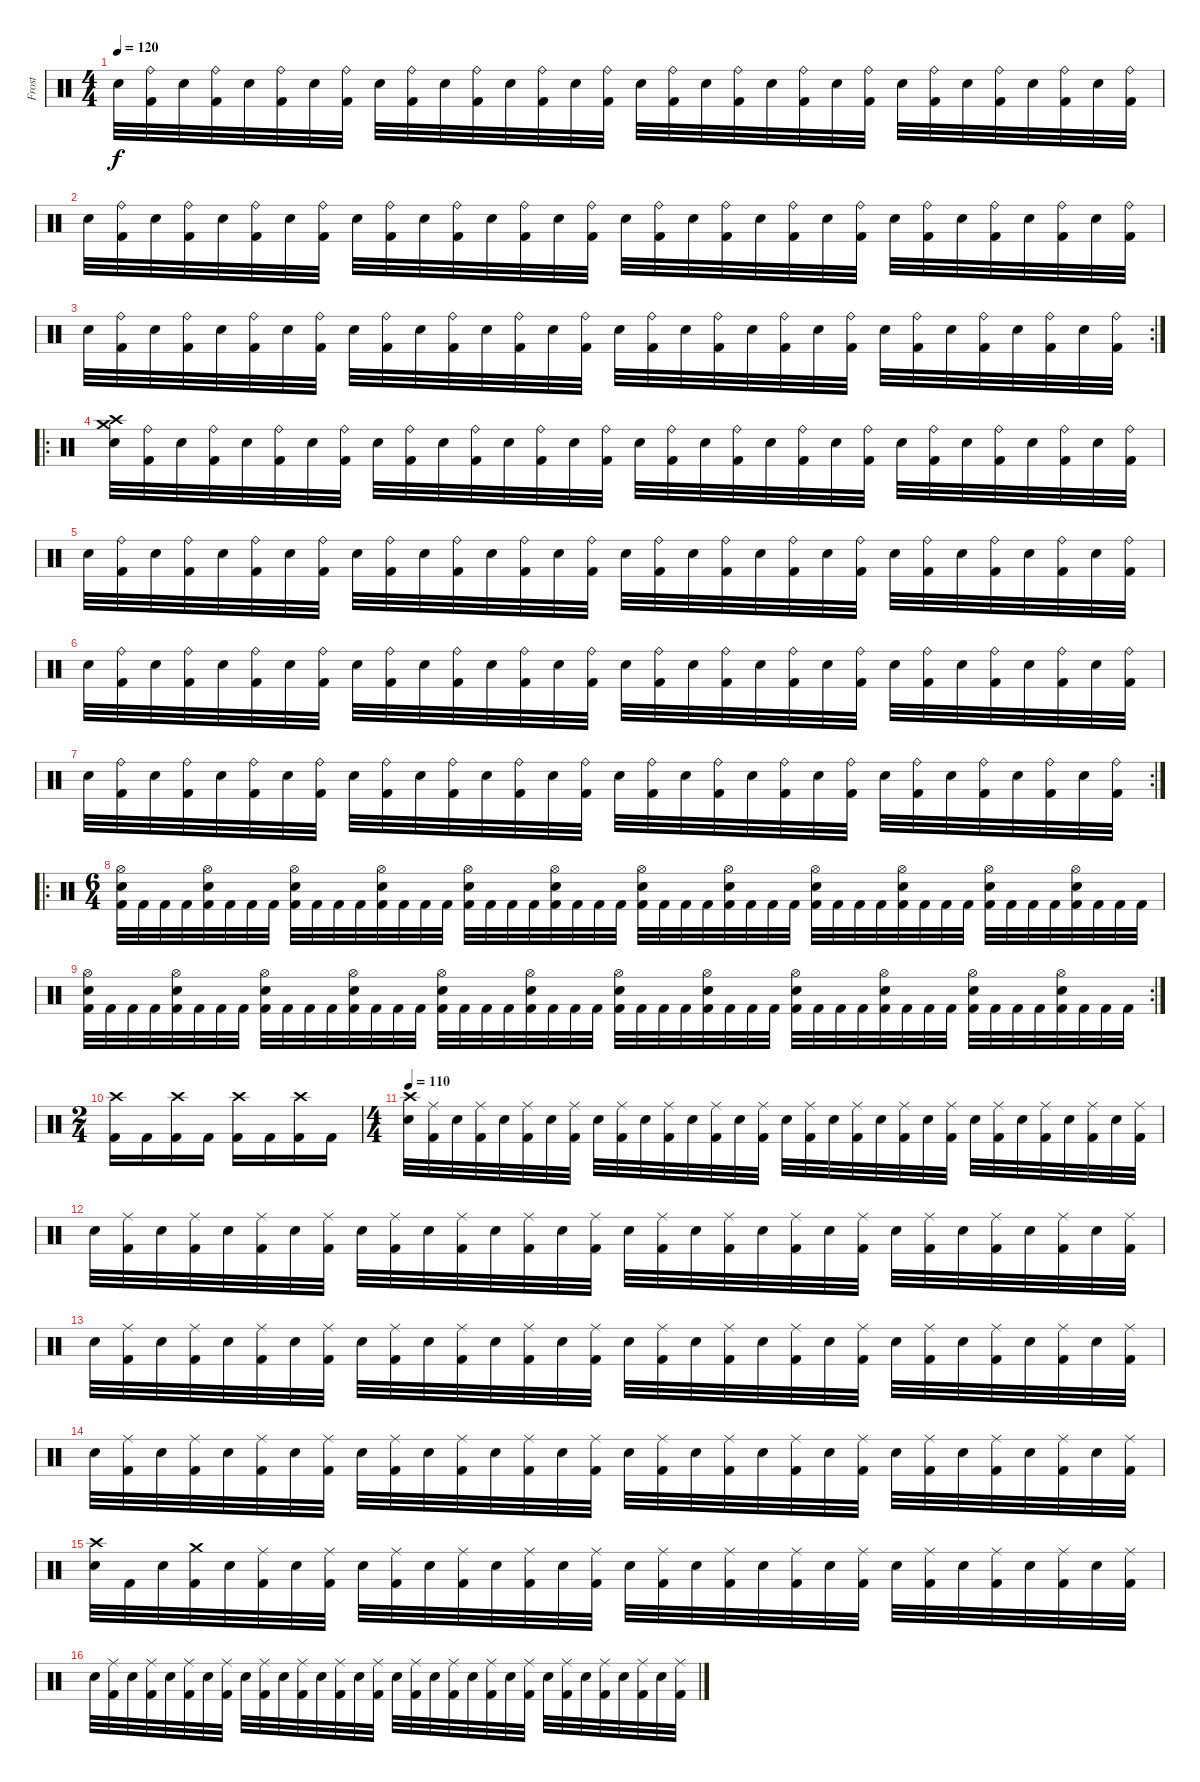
\track ("Frost" "Frost") {instrument percussion}
\staff {score}
\articulation defaults
\ts (4 4)
\tempo 120
\clef neutral
\ks c "Snare (hit) 2".32{dy f}
("Ride (bell)" "Kick (hit) 2").32 "Snare (hit) 2".32 ("Ride (bell)" "Kick (hit) 2").32 "Snare (hit) 2".32 ("Ride (bell)" "Kick (hit) 2").32 "Snare (hit) 2".32 ("Ride (bell)" "Kick (hit) 2").32 "Snare (hit) 2".32 ("Ride (bell)" "Kick (hit) 2").32 "Snare (hit) 2".32 ("Ride (bell)" "Kick (hit) 2").32 "Snare (hit) 2".32 ("Ride (bell)" "Kick (hit) 2").32 "Snare (hit) 2".32 ("Ride (bell)" "Kick (hit) 2").32 "Snare (hit) 2".32 ("Ride (bell)" "Kick (hit) 2").32 "Snare (hit) 2".32 ("Ride (bell)" "Kick (hit) 2").32 "Snare (hit) 2".32 ("Ride (bell)" "Kick (hit) 2").32 "Snare (hit) 2".32 ("Ride (bell)" "Kick (hit) 2").32 "Snare (hit) 2".32 ("Ride (bell)" "Kick (hit) 2").32 "Snare (hit) 2".32 ("Ride (bell)" "Kick (hit) 2").32 "Snare (hit) 2".32 ("Ride (bell)" "Kick (hit) 2").32 "Snare (hit) 2".32 ("Ride (bell)" "Kick (hit) 2").32 |
"Snare (hit) 2".32 ("Ride (bell)" "Kick (hit) 2").32 "Snare (hit) 2".32 ("Ride (bell)" "Kick (hit) 2").32 "Snare (hit) 2".32 ("Ride (bell)" "Kick (hit) 2").32 "Snare (hit) 2".32 ("Ride (bell)" "Kick (hit) 2").32 "Snare (hit) 2".32 ("Ride (bell)" "Kick (hit) 2").32 "Snare (hit) 2".32 ("Ride (bell)" "Kick (hit) 2").32 "Snare (hit) 2".32 ("Ride (bell)" "Kick (hit) 2").32 "Snare (hit) 2".32 ("Ride (bell)" "Kick (hit) 2").32 "Snare (hit) 2".32 ("Ride (bell)" "Kick (hit) 2").32 "Snare (hit) 2".32 ("Ride (bell)" "Kick (hit) 2").32 "Snare (hit) 2".32 ("Ride (bell)" "Kick (hit) 2").32 "Snare (hit) 2".32 ("Ride (bell)" "Kick (hit) 2").32 "Snare (hit) 2".32 ("Ride (bell)" "Kick (hit) 2").32 "Snare (hit) 2".32 ("Ride (bell)" "Kick (hit) 2").32 "Snare (hit) 2".32 ("Ride (bell)" "Kick (hit) 2").32 "Snare (hit) 2".32 ("Ride (bell)" "Kick (hit) 2").32 |
\rc 2 "Snare (hit) 2".32
("Ride (bell)" "Kick (hit) 2").32 "Snare (hit) 2".32 ("Ride (bell)" "Kick (hit) 2").32 "Snare (hit) 2".32 ("Ride (bell)" "Kick (hit) 2").32 "Snare (hit) 2".32 ("Ride (bell)" "Kick (hit) 2").32 "Snare (hit) 2".32 ("Ride (bell)" "Kick (hit) 2").32 "Snare (hit) 2".32 ("Ride (bell)" "Kick (hit) 2").32 "Snare (hit) 2".32 ("Ride (bell)" "Kick (hit) 2").32 "Snare (hit) 2".32 ("Ride (bell)" "Kick (hit) 2").32 "Snare (hit) 2".32 ("Ride (bell)" "Kick (hit) 2").32 "Snare (hit) 2".32 ("Ride (bell)" "Kick (hit) 2").32 "Snare (hit) 2".32 ("Ride (bell)" "Kick (hit) 2").32 "Snare (hit) 2".32 ("Ride (bell)" "Kick (hit) 2").32 "Snare (hit) 2".32 ("Ride (bell)" "Kick (hit) 2").32 "Snare (hit) 2".32 ("Ride (bell)" "Kick (hit) 2").32 "Snare (hit) 2".32 ("Ride (bell)" "Kick (hit) 2").32 "Snare (hit) 2".32 ("Ride (bell)" "Kick (hit) 2").32 |
\ro
("Crash high (hit)" "Crash medium (hit)" "Snare (hit) 2").32 ("Ride (bell)" "Kick (hit) 2").32 "Snare (hit) 2".32 ("Ride (bell)" "Kick (hit) 2").32 "Snare (hit) 2".32 ("Ride (bell)" "Kick (hit) 2").32 "Snare (hit) 2".32 ("Ride (bell)" "Kick (hit) 2").32 "Snare (hit) 2".32 ("Ride (bell)" "Kick (hit) 2").32 "Snare (hit) 2".32 ("Ride (bell)" "Kick (hit) 2").32 "Snare (hit) 2".32 ("Ride (bell)" "Kick (hit) 2").32 "Snare (hit) 2".32 ("Ride (bell)" "Kick (hit) 2").32 "Snare (hit) 2".32 ("Ride (bell)" "Kick (hit) 2").32 "Snare (hit) 2".32 ("Ride (bell)" "Kick (hit) 2").32 "Snare (hit) 2".32 ("Ride (bell)" "Kick (hit) 2").32 "Snare (hit) 2".32 ("Ride (bell)" "Kick (hit) 2").32 "Snare (hit) 2".32 ("Ride (bell)" "Kick (hit) 2").32 "Snare (hit) 2".32 ("Ride (bell)" "Kick (hit) 2").32 "Snare (hit) 2".32 ("Ride (bell)" "Kick (hit) 2").32 "Snare (hit) 2".32 ("Ride (bell)" "Kick (hit) 2").32 |
"Snare (hit) 2".32 ("Ride (bell)" "Kick (hit) 2").32 "Snare (hit) 2".32 ("Ride (bell)" "Kick (hit) 2").32 "Snare (hit) 2".32 ("Ride (bell)" "Kick (hit) 2").32 "Snare (hit) 2".32 ("Ride (bell)" "Kick (hit) 2").32 "Snare (hit) 2".32 ("Ride (bell)" "Kick (hit) 2").32 "Snare (hit) 2".32 ("Ride (bell)" "Kick (hit) 2").32 "Snare (hit) 2".32 ("Ride (bell)" "Kick (hit) 2").32 "Snare (hit) 2".32 ("Ride (bell)" "Kick (hit) 2").32 "Snare (hit) 2".32 ("Ride (bell)" "Kick (hit) 2").32 "Snare (hit) 2".32 ("Ride (bell)" "Kick (hit) 2").32 "Snare (hit) 2".32 ("Ride (bell)" "Kick (hit) 2").32 "Snare (hit) 2".32 ("Ride (bell)" "Kick (hit) 2").32 "Snare (hit) 2".32 ("Ride (bell)" "Kick (hit) 2").32 "Snare (hit) 2".32 ("Ride (bell)" "Kick (hit) 2").32 "Snare (hit) 2".32 ("Ride (bell)" "Kick (hit) 2").32 "Snare (hit) 2".32 ("Ride (bell)" "Kick (hit) 2").32 |
"Snare (hit) 2".32 ("Ride (bell)" "Kick (hit) 2").32 "Snare (hit) 2".32 ("Ride (bell)" "Kick (hit) 2").32 "Snare (hit) 2".32 ("Ride (bell)" "Kick (hit) 2").32 "Snare (hit) 2".32 ("Ride (bell)" "Kick (hit) 2").32 "Snare (hit) 2".32 ("Ride (bell)" "Kick (hit) 2").32 "Snare (hit) 2".32 ("Ride (bell)" "Kick (hit) 2").32 "Snare (hit) 2".32 ("Ride (bell)" "Kick (hit) 2").32 "Snare (hit) 2".32 ("Ride (bell)" "Kick (hit) 2").32 "Snare (hit) 2".32 ("Ride (bell)" "Kick (hit) 2").32 "Snare (hit) 2".32 ("Ride (bell)" "Kick (hit) 2").32 "Snare (hit) 2".32 ("Ride (bell)" "Kick (hit) 2").32 "Snare (hit) 2".32 ("Ride (bell)" "Kick (hit) 2").32 "Snare (hit) 2".32 ("Ride (bell)" "Kick (hit) 2").32 "Snare (hit) 2".32 ("Ride (bell)" "Kick (hit) 2").32 "Snare (hit) 2".32 ("Ride (bell)" "Kick (hit) 2").32 "Snare (hit) 2".32 ("Ride (bell)" "Kick (hit) 2").32 |
\rc 2 "Snare (hit) 2".32
("Ride (bell)" "Kick (hit) 2").32 "Snare (hit) 2".32 ("Ride (bell)" "Kick (hit) 2").32 "Snare (hit) 2".32 ("Ride (bell)" "Kick (hit) 2").32 "Snare (hit) 2".32 ("Ride (bell)" "Kick (hit) 2").32 "Snare (hit) 2".32 ("Ride (bell)" "Kick (hit) 2").32 "Snare (hit) 2".32 ("Ride (bell)" "Kick (hit) 2").32 "Snare (hit) 2".32 ("Ride (bell)" "Kick (hit) 2").32 "Snare (hit) 2".32 ("Ride (bell)" "Kick (hit) 2").32 "Snare (hit) 2".32 ("Ride (bell)" "Kick (hit) 2").32 "Snare (hit) 2".32 ("Ride (bell)" "Kick (hit) 2").32 "Snare (hit) 2".32 ("Ride (bell)" "Kick (hit) 2").32 "Snare (hit) 2".32 ("Ride (bell)" "Kick (hit) 2").32 "Snare (hit) 2".32 ("Ride (bell)" "Kick (hit) 2").32 "Snare (hit) 2".32 ("Ride (bell)" "Kick (hit) 2").32 "Snare (hit) 2".32 ("Ride (bell)" "Kick (hit) 2").32 "Snare (hit) 2".32 ("Ride (bell)" "Kick (hit) 2").32 |
\ro
\ts (6 4)
("Hi-Hat (open)" "Snare (hit) 2" "Kick (hit) 2").32 "Kick (hit) 2".32 "Kick (hit) 2".32 "Kick (hit) 2".32 ("Hi-Hat (open)" "Snare (hit) 2" "Kick (hit) 2").32 "Kick (hit) 2".32 "Kick (hit) 2".32 "Kick (hit) 2".32 ("Hi-Hat (open)" "Snare (hit) 2" "Kick (hit) 2").32 "Kick (hit) 2".32 "Kick (hit) 2".32 "Kick (hit) 2".32 ("Hi-Hat (open)" "Snare (hit) 2" "Kick (hit) 2").32 "Kick (hit) 2".32 "Kick (hit) 2".32 "Kick (hit) 2".32 ("Hi-Hat (open)" "Snare (hit) 2" "Kick (hit) 2").32 "Kick (hit) 2".32 "Kick (hit) 2".32 "Kick (hit) 2".32 ("Hi-Hat (open)" "Snare (hit) 2" "Kick (hit) 2").32 "Kick (hit) 2".32 "Kick (hit) 2".32 "Kick (hit) 2".32 ("Hi-Hat (open)" "Snare (hit) 2" "Kick (hit) 2").32 "Kick (hit) 2".32 "Kick (hit) 2".32 "Kick (hit) 2".32 ("Hi-Hat (open)" "Snare (hit) 2" "Kick (hit) 2").32 "Kick (hit) 2".32 "Kick (hit) 2".32 "Kick (hit) 2".32 ("Hi-Hat (open)" "Snare (hit) 2" "Kick (hit) 2").32 "Kick (hit) 2".32 "Kick (hit) 2".32 "Kick (hit) 2".32 ("Hi-Hat (open)" "Snare (hit) 2" "Kick (hit) 2").32 "Kick (hit) 2".32 "Kick (hit) 2".32 "Kick (hit) 2".32 ("Hi-Hat (open)" "Snare (hit) 2" "Kick (hit) 2").32 "Kick (hit) 2".32 "Kick (hit) 2".32 "Kick (hit) 2".32 ("Hi-Hat (open)" "Snare (hit) 2" "Kick (hit) 2").32 "Kick (hit) 2".32 "Kick (hit) 2".32 "Kick (hit) 2".32 |
\rc 2
("Hi-Hat (open)" "Snare (hit) 2" "Kick (hit) 2").32 "Kick (hit) 2".32 "Kick (hit) 2".32 "Kick (hit) 2".32 ("Hi-Hat (open)" "Snare (hit) 2" "Kick (hit) 2").32 "Kick (hit) 2".32 "Kick (hit) 2".32 "Kick (hit) 2".32 ("Hi-Hat (open)" "Snare (hit) 2" "Kick (hit) 2").32 "Kick (hit) 2".32 "Kick (hit) 2".32 "Kick (hit) 2".32 ("Hi-Hat (open)" "Snare (hit) 2" "Kick (hit) 2").32 "Kick (hit) 2".32 "Kick (hit) 2".32 "Kick (hit) 2".32 ("Hi-Hat (open)" "Snare (hit) 2" "Kick (hit) 2").32 "Kick (hit) 2".32 "Kick (hit) 2".32 "Kick (hit) 2".32 ("Hi-Hat (open)" "Snare (hit) 2" "Kick (hit) 2").32 "Kick (hit) 2".32 "Kick (hit) 2".32 "Kick (hit) 2".32 ("Hi-Hat (open)" "Snare (hit) 2" "Kick (hit) 2").32 "Kick (hit) 2".32 "Kick (hit) 2".32 "Kick (hit) 2".32 ("Hi-Hat (open)" "Snare (hit) 2" "Kick (hit) 2").32 "Kick (hit) 2".32 "Kick (hit) 2".32 "Kick (hit) 2".32 ("Hi-Hat (open)" "Snare (hit) 2" "Kick (hit) 2").32 "Kick (hit) 2".32 "Kick (hit) 2".32 "Kick (hit) 2".32 ("Hi-Hat (open)" "Snare (hit) 2" "Kick (hit) 2").32 "Kick (hit) 2".32 "Kick (hit) 2".32 "Kick (hit) 2".32 ("Hi-Hat (open)" "Snare (hit) 2" "Kick (hit) 2").32 "Kick (hit) 2".32 "Kick (hit) 2".32 "Kick (hit) 2".32 ("Hi-Hat (open)" "Snare (hit) 2" "Kick (hit) 2").32 "Kick (hit) 2".32 "Kick (hit) 2".32 "Kick (hit) 2".32 |
\ts (2 4)
("Crash high (hit)" "Kick (hit) 2").16 "Kick (hit) 2".16 ("Crash high (hit)" "Kick (hit) 2").16 "Kick (hit) 2".16 ("Crash high (hit)" "Kick (hit) 2").16 "Kick (hit) 2".16 ("Crash high (hit)" "Kick (hit) 2").16 "Kick (hit) 2".16 |
\ts (4 4)
\tempo 110
("Crash high (hit)" "Snare (hit) 2").32 ("Ride (middle)" "Kick (hit) 2").32 "Snare (hit) 2".32 ("Ride (middle)" "Kick (hit) 2").32 "Snare (hit) 2".32 ("Ride (middle)" "Kick (hit) 2").32 "Snare (hit) 2".32 ("Ride (middle)" "Kick (hit) 2").32 "Snare (hit) 2".32 ("Ride (middle)" "Kick (hit) 2").32 "Snare (hit) 2".32 ("Ride (middle)" "Kick (hit) 2").32 "Snare (hit) 2".32 ("Ride (middle)" "Kick (hit) 2").32 "Snare (hit) 2".32 ("Ride (middle)" "Kick (hit) 2").32 "Snare (hit) 2".32 ("Ride (middle)" "Kick (hit) 2").32 "Snare (hit) 2".32 ("Ride (middle)" "Kick (hit) 2").32 "Snare (hit) 2".32 ("Ride (middle)" "Kick (hit) 2").32 "Snare (hit) 2".32 ("Ride (middle)" "Kick (hit) 2").32 "Snare (hit) 2".32 ("Ride (middle)" "Kick (hit) 2").32 "Snare (hit) 2".32 ("Ride (middle)" "Kick (hit) 2").32 "Snare (hit) 2".32 ("Ride (middle)" "Kick (hit) 2").32 "Snare (hit) 2".32 ("Ride (middle)" "Kick (hit) 2").32 |
"Snare (hit) 2".32 ("Ride (middle)" "Kick (hit) 2").32 "Snare (hit) 2".32 ("Ride (middle)" "Kick (hit) 2").32 "Snare (hit) 2".32 ("Ride (middle)" "Kick (hit) 2").32 "Snare (hit) 2".32 ("Ride (middle)" "Kick (hit) 2").32 "Snare (hit) 2".32 ("Ride (middle)" "Kick (hit) 2").32 "Snare (hit) 2".32 ("Ride (middle)" "Kick (hit) 2").32 "Snare (hit) 2".32 ("Ride (middle)" "Kick (hit) 2").32 "Snare (hit) 2".32 ("Ride (middle)" "Kick (hit) 2").32 "Snare (hit) 2".32 ("Ride (middle)" "Kick (hit) 2").32 "Snare (hit) 2".32 ("Ride (middle)" "Kick (hit) 2").32 "Snare (hit) 2".32 ("Ride (middle)" "Kick (hit) 2").32 "Snare (hit) 2".32 ("Ride (middle)" "Kick (hit) 2").32 "Snare (hit) 2".32 ("Ride (middle)" "Kick (hit) 2").32 "Snare (hit) 2".32 ("Ride (middle)" "Kick (hit) 2").32 "Snare (hit) 2".32 ("Ride (middle)" "Kick (hit) 2").32 "Snare (hit) 2".32 ("Ride (middle)" "Kick (hit) 2").32 |
"Snare (hit) 2".32 ("Ride (middle)" "Kick (hit) 2").32 "Snare (hit) 2".32 ("Ride (middle)" "Kick (hit) 2").32 "Snare (hit) 2".32 ("Ride (middle)" "Kick (hit) 2").32 "Snare (hit) 2".32 ("Ride (middle)" "Kick (hit) 2").32 "Snare (hit) 2".32 ("Ride (middle)" "Kick (hit) 2").32 "Snare (hit) 2".32 ("Ride (middle)" "Kick (hit) 2").32 "Snare (hit) 2".32 ("Ride (middle)" "Kick (hit) 2").32 "Snare (hit) 2".32 ("Ride (middle)" "Kick (hit) 2").32 "Snare (hit) 2".32 ("Ride (middle)" "Kick (hit) 2").32 "Snare (hit) 2".32 ("Ride (middle)" "Kick (hit) 2").32 "Snare (hit) 2".32 ("Ride (middle)" "Kick (hit) 2").32 "Snare (hit) 2".32 ("Ride (middle)" "Kick (hit) 2").32 "Snare (hit) 2".32 ("Ride (middle)" "Kick (hit) 2").32 "Snare (hit) 2".32 ("Ride (middle)" "Kick (hit) 2").32 "Snare (hit) 2".32 ("Ride (middle)" "Kick (hit) 2").32 "Snare (hit) 2".32 ("Ride (middle)" "Kick (hit) 2").32 |
"Snare (hit) 2".32 ("Ride (middle)" "Kick (hit) 2").32 "Snare (hit) 2".32 ("Ride (middle)" "Kick (hit) 2").32 "Snare (hit) 2".32 ("Ride (middle)" "Kick (hit) 2").32 "Snare (hit) 2".32 ("Ride (middle)" "Kick (hit) 2").32 "Snare (hit) 2".32 ("Ride (middle)" "Kick (hit) 2").32 "Snare (hit) 2".32 ("Ride (middle)" "Kick (hit) 2").32 "Snare (hit) 2".32 ("Ride (middle)" "Kick (hit) 2").32 "Snare (hit) 2".32 ("Ride (middle)" "Kick (hit) 2").32 "Snare (hit) 2".32 ("Ride (middle)" "Kick (hit) 2").32 "Snare (hit) 2".32 ("Ride (middle)" "Kick (hit) 2").32 "Snare (hit) 2".32 ("Ride (middle)" "Kick (hit) 2").32 "Snare (hit) 2".32 ("Ride (middle)" "Kick (hit) 2").32 "Snare (hit) 2".32 ("Ride (middle)" "Kick (hit) 2").32 "Snare (hit) 2".32 ("Ride (middle)" "Kick (hit) 2").32 "Snare (hit) 2".32 ("Ride (middle)" "Kick (hit) 2").32 "Snare (hit) 2".32 ("Ride (middle)" "Kick (hit) 2").32 |
("Crash high (hit)" "Snare (hit) 2").32 "Kick (hit) 2".32 "Snare (hit) 2".32 ("Crash medium (hit)" "Kick (hit) 2").32 "Snare (hit) 2".32 ("Ride (middle)" "Kick (hit) 2").32 "Snare (hit) 2".32 ("Ride (middle)" "Kick (hit) 2").32 "Snare (hit) 2".32 ("Ride (middle)" "Kick (hit) 2").32 "Snare (hit) 2".32 ("Ride (middle)" "Kick (hit) 2").32 "Snare (hit) 2".32 ("Ride (middle)" "Kick (hit) 2").32 "Snare (hit) 2".32 ("Ride (middle)" "Kick (hit) 2").32 "Snare (hit) 2".32 ("Ride (middle)" "Kick (hit) 2").32 "Snare (hit) 2".32 ("Ride (middle)" "Kick (hit) 2").32 "Snare (hit) 2".32 ("Ride (middle)" "Kick (hit) 2").32 "Snare (hit) 2".32 ("Ride (middle)" "Kick (hit) 2").32 "Snare (hit) 2".32 ("Ride (middle)" "Kick (hit) 2").32 "Snare (hit) 2".32 ("Ride (middle)" "Kick (hit) 2").32 "Snare (hit) 2".32 ("Ride (middle)" "Kick (hit) 2").32 "Snare (hit) 2".32 ("Ride (middle)" "Kick (hit) 2").32 |
"Snare (hit) 2".32 ("Ride (middle)" "Kick (hit) 2").32 "Snare (hit) 2".32 ("Ride (middle)" "Kick (hit) 2").32 "Snare (hit) 2".32 ("Ride (middle)" "Kick (hit) 2").32 "Snare (hit) 2".32 ("Ride (middle)" "Kick (hit) 2").32 "Snare (hit) 2".32 ("Ride (middle)" "Kick (hit) 2").32 "Snare (hit) 2".32 ("Ride (middle)" "Kick (hit) 2").32 "Snare (hit) 2".32 ("Ride (middle)" "Kick (hit) 2").32 "Snare (hit) 2".32 ("Ride (middle)" "Kick (hit) 2").32 "Snare (hit) 2".32 ("Ride (middle)" "Kick (hit) 2").32 "Snare (hit) 2".32 ("Ride (middle)" "Kick (hit) 2").32 "Snare (hit) 2".32 ("Ride (middle)" "Kick (hit) 2").32 "Snare (hit) 2".32 ("Ride (middle)" "Kick (hit) 2").32 "Snare (hit) 2".32 ("Ride (middle)" "Kick (hit) 2").32 "Snare (hit) 2".32 ("Ride (middle)" "Kick (hit) 2").32 "Snare (hit) 2".32 ("Ride (middle)" "Kick (hit) 2").32 "Snare (hit) 2".32 ("Ride (middle)" "Kick (hit) 2").32
